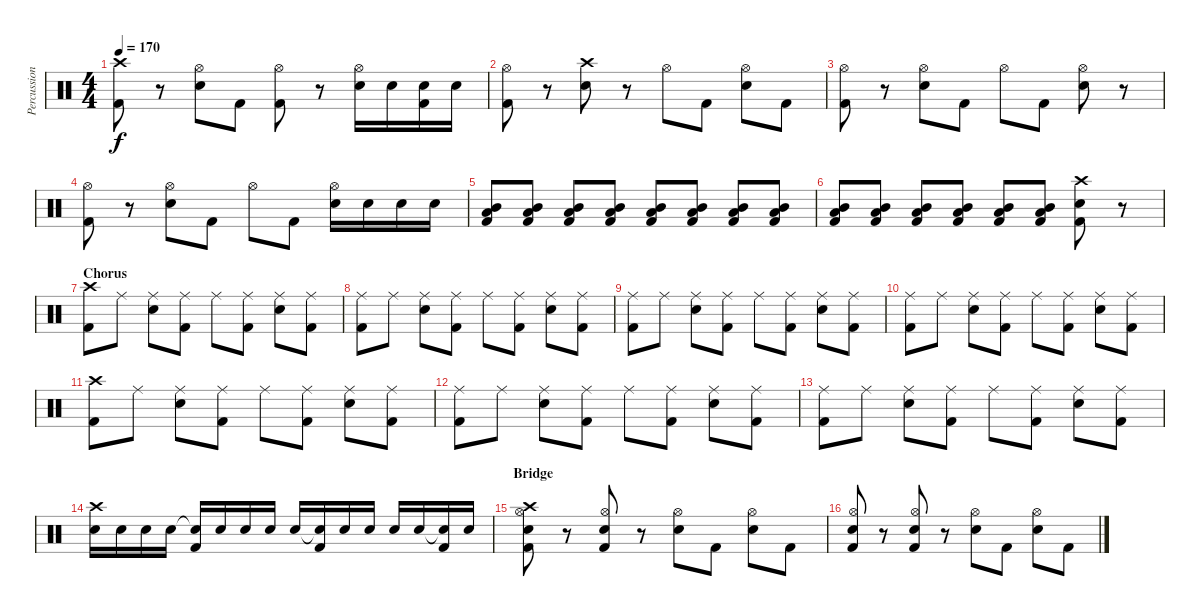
\track ("Percussion" "Percussion") {instrument percussion}
\staff {score}
\articulation defaults
\ts (4 4)
\tempo 170
\clef neutral
\ks c
("Crash high (hit)" "Kick (hit) 2").8{dy f} r.8 ("Hi-Hat (open)" "Snare (hit) 2").8 "Kick (hit) 2".8 ("Hi-Hat (open)" "Kick (hit) 2").8 r.8 ("Hi-Hat (open)" "Snare (hit) 2").16 "Snare (hit) 2".16 ("Snare (hit) 2" "Kick (hit) 2").16 "Snare (hit) 2".16 |
("Hi-Hat (open)" "Kick (hit) 2").8 r.8 ("Crash high (hit)" "Snare (hit) 2").8 r.8 "Hi-Hat (open)".8 "Kick (hit) 2".8 ("Hi-Hat (open)" "Snare (hit) 2").8 "Kick (hit) 2".8 |
("Hi-Hat (open)" "Kick (hit) 2").8 r.8 ("Hi-Hat (open)" "Snare (hit) 2").8 "Kick (hit) 2".8 "Hi-Hat (open)".8 "Kick (hit) 2".8 ("Hi-Hat (open)" "Snare (hit) 2").8 r.8 |
("Hi-Hat (open)" "Kick (hit) 2").8 r.8 ("Hi-Hat (open)" "Snare (hit) 2").8 "Kick (hit) 2".8 "Hi-Hat (open)".8 "Kick (hit) 2".8 ("Hi-Hat (open)" "Snare (hit) 2").16 "Snare (hit) 2".16 "Snare (hit) 2".16 "Snare (hit) 2".16 |
("Mid Tom (hit)" "Low Tom (hit)" "Kick (hit) 2").8 ("Mid Tom (hit)" "Low Tom (hit)" "Kick (hit) 2").8 ("Mid Tom (hit)" "Low Tom (hit)" "Kick (hit) 2").8 ("Mid Tom (hit)" "Low Tom (hit)" "Kick (hit) 2").8 ("Mid Tom (hit)" "Low Tom (hit)" "Kick (hit) 2").8 ("Mid Tom (hit)" "Low Tom (hit)" "Kick (hit) 2").8 ("Mid Tom (hit)" "Low Tom (hit)" "Kick (hit) 2").8 ("Mid Tom (hit)" "Low Tom (hit)" "Kick (hit) 2").8 |
("Mid Tom (hit)" "Low Tom (hit)" "Kick (hit) 2").8 ("Mid Tom (hit)" "Low Tom (hit)" "Kick (hit) 2").8 ("Mid Tom (hit)" "Low Tom (hit)" "Kick (hit) 2").8 ("Mid Tom (hit)" "Low Tom (hit)" "Kick (hit) 2").8 ("Mid Tom (hit)" "Low Tom (hit)" "Kick (hit) 2").8 ("Mid Tom (hit)" "Low Tom (hit)" "Kick (hit) 2").8 ("Crash high (hit)" "Snare (hit) 2" "Kick (hit) 2").8 r.8 |
\section ("" "Chorus")
("Crash high (hit)" "Kick (hit) 2").8 "Ride (middle)".8 ("Ride (middle)" "Snare (hit) 2").8 ("Ride (middle)" "Kick (hit) 2").8 "Ride (middle)".8 ("Ride (middle)" "Kick (hit) 2").8 ("Ride (middle)" "Snare (hit) 2").8 ("Ride (middle)" "Kick (hit) 2").8 |
("Ride (middle)" "Kick (hit) 2").8 "Ride (middle)".8 ("Ride (middle)" "Snare (hit) 2").8 ("Ride (middle)" "Kick (hit) 2").8 "Ride (middle)".8 ("Ride (middle)" "Kick (hit) 2").8 ("Ride (middle)" "Snare (hit) 2").8 ("Ride (middle)" "Kick (hit) 2").8 |
("Ride (middle)" "Kick (hit) 2").8 "Ride (middle)".8 ("Ride (middle)" "Snare (hit) 2").8 ("Ride (middle)" "Kick (hit) 2").8 "Ride (middle)".8 ("Ride (middle)" "Kick (hit) 2").8 ("Ride (middle)" "Snare (hit) 2").8 ("Ride (middle)" "Kick (hit) 2").8 |
("Ride (middle)" "Kick (hit) 2").8 "Ride (middle)".8 ("Ride (middle)" "Snare (hit) 2").8 ("Ride (middle)" "Kick (hit) 2").8 "Ride (middle)".8 ("Ride (middle)" "Kick (hit) 2").8 ("Ride (middle)" "Snare (hit) 2").8 ("Ride (middle)" "Kick (hit) 2").8 |
("Crash high (hit)" "Kick (hit) 2").8 "Ride (middle)".8 ("Ride (middle)" "Snare (hit) 2").8 ("Ride (middle)" "Kick (hit) 2").8 "Ride (middle)".8 ("Ride (middle)" "Kick (hit) 2").8 ("Ride (middle)" "Snare (hit) 2").8 ("Ride (middle)" "Kick (hit) 2").8 |
("Ride (middle)" "Kick (hit) 2").8 "Ride (middle)".8 ("Ride (middle)" "Snare (hit) 2").8 ("Ride (middle)" "Kick (hit) 2").8 "Ride (middle)".8 ("Ride (middle)" "Kick (hit) 2").8 ("Ride (middle)" "Snare (hit) 2").8 ("Ride (middle)" "Kick (hit) 2").8 |
("Ride (middle)" "Kick (hit) 2").8 "Ride (middle)".8 ("Ride (middle)" "Snare (hit) 2").8 ("Ride (middle)" "Kick (hit) 2").8 "Ride (middle)".8 ("Ride (middle)" "Kick (hit) 2").8 ("Ride (middle)" "Snare (hit) 2").8 ("Ride (middle)" "Kick (hit) 2").8 |
("Crash high (hit)" "Snare (hit) 2").16 "Snare (hit) 2".16 "Snare (hit) 2".16 "Snare (hit) 2".16 ("Snare (hit)"{t} "Kick (hit) 2").16 "Snare (hit) 2".16 "Snare (hit) 2".16 "Snare (hit) 2".16 "Snare (hit) 2".16 ("Snare (hit)"{t} "Kick (hit) 2").16 "Snare (hit) 2".16 "Snare (hit) 2".16 "Snare (hit) 2".16 "Snare (hit) 2".16 ("Snare (hit)"{t} "Kick (hit) 2").16 "Snare (hit) 2".16 |
\section ("" "Bridge")
("Crash high (hit)" "Hi-Hat (open)" "Snare (hit) 2" "Kick (hit) 2").8 r.8 ("Hi-Hat (open)" "Snare (hit) 2" "Kick (hit) 2").8 r.8 ("Hi-Hat (open)" "Snare (hit) 2").8 "Kick (hit) 2".8 ("Hi-Hat (open)" "Snare (hit) 2").8 "Kick (hit) 2".8 |
("Hi-Hat (open)" "Snare (hit) 2" "Kick (hit) 2").8 r.8 ("Hi-Hat (open)" "Snare (hit) 2" "Kick (hit) 2").8 r.8 ("Hi-Hat (open)" "Snare (hit) 2").8 "Kick (hit) 2".8 ("Hi-Hat (open)" "Snare (hit) 2").8 "Kick (hit) 2".8
